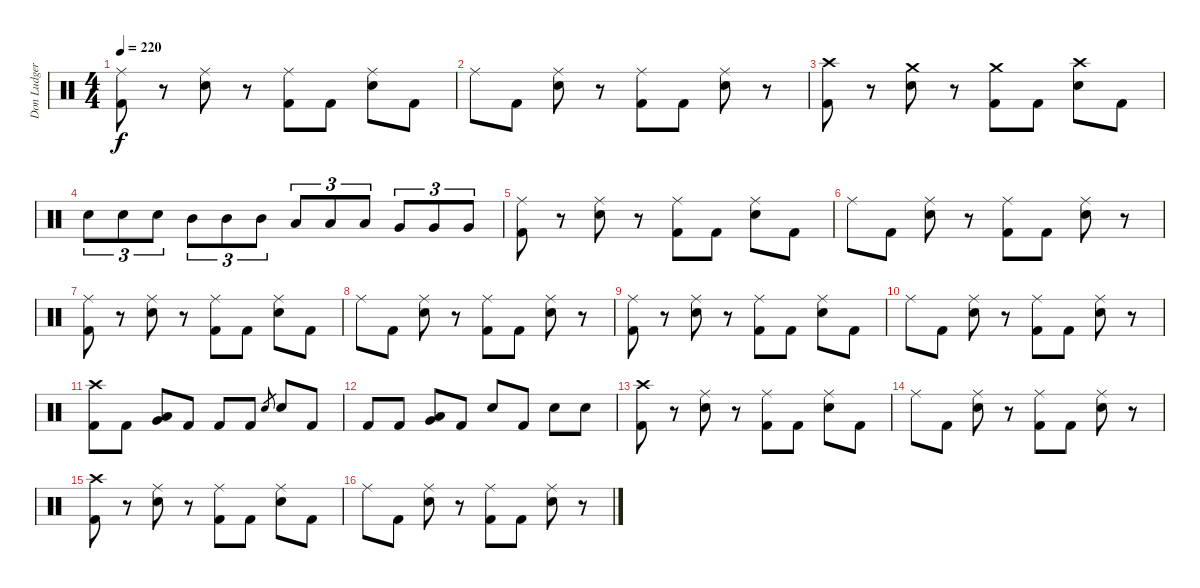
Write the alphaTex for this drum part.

\track ("Don Ludger" "Don Ludger") {instrument percussion}
\staff {score}
\articulation defaults
\ts (4 4)
\tempo 220
\clef neutral
\ks c
("Ride (middle)" "Kick (hit) 2").8{dy f} r.8 ("Ride (middle)" "Electric Snare (hit)").8 r.8 ("Ride (middle)" "Kick (hit) 2").8 "Kick (hit) 2".8 ("Ride (middle)" "Electric Snare (hit)").8 "Kick (hit) 2".8 |
"Ride (middle)".8 "Kick (hit) 2".8 ("Ride (middle)" "Electric Snare (hit)").8 r.8 ("Ride (middle)" "Kick (hit) 2").8 "Kick (hit) 2".8 ("Ride (middle)" "Electric Snare (hit)").8 r.8 |
("Crash high (hit)" "Kick (hit) 2").8 r.8 ("Crash medium (hit)" "Electric Snare (hit)").8 r.8 ("Crash medium (hit)" "Kick (hit) 2").8 "Kick (hit) 2".8 ("Crash high (hit)" "Electric Snare (hit)").8 "Kick (hit) 2".8 |
"Electric Snare (hit)".8{tu (3 2)} "Electric Snare (hit)".8{tu (3 2)} "Electric Snare (hit)".8{tu (3 2)} "Mid Tom (hit)".8{tu (3 2)} "Mid Tom (hit)".8{tu (3 2)} "Mid Tom (hit)".8{tu (3 2)} "Low Tom (hit)".8{tu (3 2)} "Low Tom (hit)".8{tu (3 2)} "Low Tom (hit)".8{tu (3 2)} "Very Low Tom (hit)".8{tu (3 2)} "Very Low Tom (hit)".8{tu (3 2)} "Very Low Tom (hit)".8{tu (3 2)} |
("Ride (middle)" "Kick (hit) 2").8 r.8 ("Ride (middle)" "Electric Snare (hit)").8 r.8 ("Ride (middle)" "Kick (hit) 2").8 "Kick (hit) 2".8 ("Ride (middle)" "Electric Snare (hit)").8 "Kick (hit) 2".8 |
"Ride (middle)".8 "Kick (hit) 2".8 ("Ride (middle)" "Electric Snare (hit)").8 r.8 ("Ride (middle)" "Kick (hit) 2").8 "Kick (hit) 2".8 ("Ride (middle)" "Electric Snare (hit)").8 r.8 |
("Ride (middle)" "Kick (hit) 2").8 r.8 ("Ride (middle)" "Electric Snare (hit)").8 r.8 ("Ride (middle)" "Kick (hit) 2").8 "Kick (hit) 2".8 ("Ride (middle)" "Electric Snare (hit)").8 "Kick (hit) 2".8 |
"Ride (middle)".8 "Kick (hit) 2".8 ("Ride (middle)" "Electric Snare (hit)").8 r.8 ("Ride (middle)" "Kick (hit) 2").8 "Kick (hit) 2".8 ("Ride (middle)" "Electric Snare (hit)").8 r.8 |
("Ride (middle)" "Kick (hit) 2").8 r.8 ("Ride (middle)" "Electric Snare (hit)").8 r.8 ("Ride (middle)" "Kick (hit) 2").8 "Kick (hit) 2".8 ("Ride (middle)" "Electric Snare (hit)").8 "Kick (hit) 2".8 |
"Ride (middle)".8 "Kick (hit) 2".8 ("Ride (middle)" "Electric Snare (hit)").8 r.8 ("Ride (middle)" "Kick (hit) 2").8 "Kick (hit) 2".8 ("Ride (middle)" "Electric Snare (hit)").8 r.8 |
("Crash high (hit)" "Kick (hit) 2").8 "Kick (hit) 2".8 ("Low Tom (hit)" "Very Low Tom (hit)").8 "Kick (hit) 2".8 "Kick (hit) 2".8 "Kick (hit) 2".8 "Electric Snare (hit)".8{gr} "Electric Snare (hit)".8 "Kick (hit) 2".8 |
"Kick (hit) 2".8 "Kick (hit) 2".8 ("Very Low Tom (hit)" "Low Tom (hit)").8 "Kick (hit) 2".8 "Electric Snare (hit)".8 "Kick (hit) 2".8 "Electric Snare (hit)".8 "Electric Snare (hit)".8 |
("Crash high (hit)" "Kick (hit) 2").8 r.8 ("Ride (middle)" "Electric Snare (hit)").8 r.8 ("Ride (middle)" "Kick (hit) 2").8 "Kick (hit) 2".8 ("Ride (middle)" "Electric Snare (hit)").8 "Kick (hit) 2".8 |
"Ride (middle)".8 "Kick (hit) 2".8 ("Ride (middle)" "Electric Snare (hit)").8 r.8 ("Ride (middle)" "Kick (hit) 2").8 "Kick (hit) 2".8 ("Ride (middle)" "Electric Snare (hit)").8 r.8 |
("Crash high (hit)" "Kick (hit) 2").8 r.8 ("Ride (middle)" "Electric Snare (hit)").8 r.8 ("Ride (middle)" "Kick (hit) 2").8 "Kick (hit) 2".8 ("Ride (middle)" "Electric Snare (hit)").8 "Kick (hit) 2".8 |
"Ride (middle)".8 "Kick (hit) 2".8 ("Ride (middle)" "Electric Snare (hit)").8 r.8 ("Ride (middle)" "Kick (hit) 2").8 "Kick (hit) 2".8 ("Ride (middle)" "Electric Snare (hit)").8 r.8
